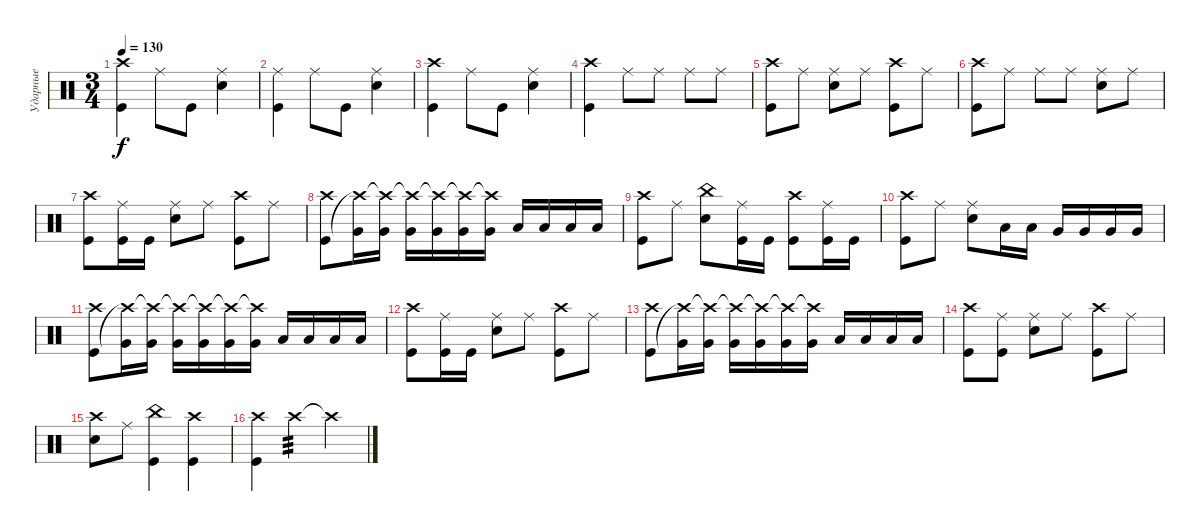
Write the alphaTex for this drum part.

\track ("Ударные" "Ударные") {instrument percussion}
\staff {score}
\articulation defaults
\ts (3 4)
\tempo 130
\clef neutral
\ks c
("Crash high (hit)" "Kick (hit)").4{dy f} "Ride (middle)".8 "Kick (hit)".8 ("Ride (middle)" "Snare (hit) 2").4 |
("Ride (middle)" "Kick (hit)").4 "Ride (middle)".8 "Kick (hit)".8 ("Ride (middle)" "Snare (hit) 2").4 |
("Crash high (hit)" "Kick (hit)").4 "Ride (middle)".8 "Kick (hit)".8 ("Ride (middle)" "Snare (hit) 2").4 |
("Kick (hit)" "Crash high (hit)").4 "Ride (middle)".8 "Ride (middle)".8 "Ride (middle)".8 "Ride (middle)".8 |
("Crash high (hit)" "Kick (hit)").8 "Ride (middle)".8 ("Snare (hit) 2" "Ride (middle)").8 "Ride (middle)".8 ("Kick (hit)" "Crash high (hit)").8 "Ride (middle)".8 |
("Kick (hit)" "Crash high (hit)").8 "Ride (middle)".8 "Ride (middle)".8 "Ride (middle)".8 ("Ride (middle)" "Snare (hit) 2").8 "Ride (middle)".8 |
("Crash high (hit)" "Kick (hit)").8 ("Ride (middle)" "Kick (hit)").16 "Kick (hit)".16 ("Snare (hit) 2" "Ride (middle)").8 "Ride (middle)".8 ("Crash high (hit)" "Kick (hit)").8 "Ride (middle)".8 |
("Crash high (hit)" "Kick (hit)").8 ("Very Low Tom (hit)" "Crash high (hit)"{t}).16{volume 10} ("Very Low Tom (hit)" "Crash high (hit)"{t}).16{volume 16} ("Very Low Tom (hit)" "Crash high (hit)"{t}).16 ("Very Low Tom (hit)" "Crash high (hit)"{t}).16 ("Very Low Tom (hit)" "Crash high (hit)"{t}).16 ("Very Low Tom (hit)" "Crash high (hit)"{t}).16 "Low Floor Tom (hit)".16 "Low Floor Tom (hit)".16 "Low Floor Tom (hit)".16 "Low Floor Tom (hit)".16 |
("Crash high (hit)" "Kick (hit)").8 "Ride (middle)".8 ("China (hit)" "Snare (hit) 2").8 ("Ride (middle)" "Kick (hit)").16 "Kick (hit)".16 ("Kick (hit)" "Crash high (hit)").8 ("Ride (middle)" "Kick (hit)").16 "Kick (hit)".16 |
("Kick (hit)" "Crash high (hit)").8 "Ride (middle)".8 ("Ride (middle)" "Snare (hit) 2").8 "Low Tom (hit)".16 "Low Tom (hit)".16 "Very Low Tom (hit)".16 "Very Low Tom (hit)".16 "Very Low Tom (hit)".16 "Very Low Tom (hit)".16 |
("Crash high (hit)" "Kick (hit)").8 ("Very Low Tom (hit)" "Crash high (hit)"{t}).16{volume 10} ("Very Low Tom (hit)" "Crash high (hit)"{t}).16{volume 16} ("Very Low Tom (hit)" "Crash high (hit)"{t}).16 ("Very Low Tom (hit)" "Crash high (hit)"{t}).16 ("Very Low Tom (hit)" "Crash high (hit)"{t}).16 ("Very Low Tom (hit)" "Crash high (hit)"{t}).16 "Low Floor Tom (hit)".16 "Low Floor Tom (hit)".16 "Low Floor Tom (hit)".16 "Low Floor Tom (hit)".16 |
("Crash high (hit)" "Kick (hit)").8 ("Ride (middle)" "Kick (hit)").16 "Kick (hit)".16 ("Snare (hit) 2" "Ride (middle)").8 "Ride (middle)".8 ("Crash high (hit)" "Kick (hit)").8 "Ride (middle)".8 |
("Crash high (hit)" "Kick (hit)").8 ("Very Low Tom (hit)" "Crash high (hit)"{t}).16{volume 10} ("Very Low Tom (hit)" "Crash high (hit)"{t}).16{volume 16} ("Very Low Tom (hit)" "Crash high (hit)"{t}).16 ("Very Low Tom (hit)" "Crash high (hit)"{t}).16 ("Very Low Tom (hit)" "Crash high (hit)"{t}).16 ("Very Low Tom (hit)" "Crash high (hit)"{t}).16 "Low Floor Tom (hit)".16 "Low Floor Tom (hit)".16 "Low Floor Tom (hit)".16 "Low Floor Tom (hit)".16 |
("Crash high (hit)" "Kick (hit)").8 ("Ride (middle)" "Kick (hit)").8 ("Snare (hit) 2" "Ride (middle)").8 "Ride (middle)".8 ("Crash high (hit)" "Kick (hit)").8 "Ride (middle)".8 |
("Crash high (hit)" "Snare (hit) 2").8 "Ride (middle)".8 ("China (hit)" "Kick (hit)").4 ("Crash high (hit)" "Kick (hit)").4 |
("Crash high (hit)" "Kick (hit)").4 "Crash high (hit)".4{tp 3 volume 10} "Crash high (hit)"{t}.4{volume 16}
